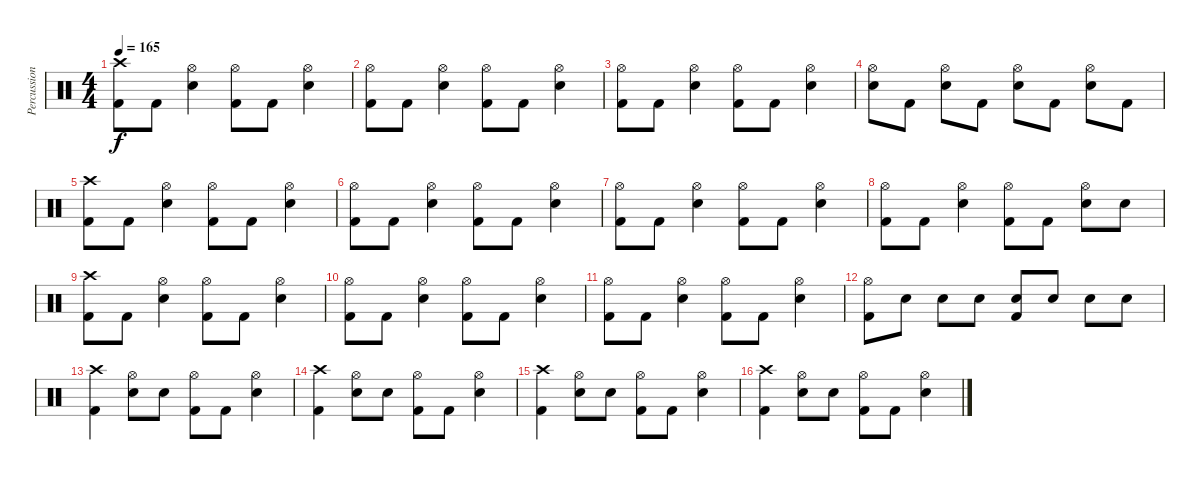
\track ("Percussion" "Percussion") {instrument percussion}
\staff {score}
\articulation defaults
\ts (4 4)
\tempo 165
\clef neutral
\ks c
("Crash high (hit)" "Kick (hit) 2").8{dy f} "Kick (hit) 2".8 ("Hi-Hat (open)" "Snare (hit) 2").4 ("Hi-Hat (open)" "Kick (hit) 2").8 "Kick (hit) 2".8 ("Hi-Hat (open)" "Snare (hit) 2").4 |
("Hi-Hat (open)" "Kick (hit) 2").8 "Kick (hit) 2".8 ("Hi-Hat (open)" "Snare (hit) 2").4 ("Hi-Hat (open)" "Kick (hit) 2").8 "Kick (hit) 2".8 ("Hi-Hat (open)" "Snare (hit) 2").4 |
("Hi-Hat (open)" "Kick (hit) 2").8 "Kick (hit) 2".8 ("Hi-Hat (open)" "Snare (hit) 2").4 ("Hi-Hat (open)" "Kick (hit) 2").8 "Kick (hit) 2".8 ("Hi-Hat (open)" "Snare (hit) 2").4 |
("Hi-Hat (open)" "Snare (hit) 2").8 "Kick (hit) 2".8 ("Hi-Hat (open)" "Snare (hit) 2").8 "Kick (hit) 2".8 ("Hi-Hat (open)" "Snare (hit) 2").8 "Kick (hit) 2".8 ("Hi-Hat (open)" "Snare (hit) 2").8 "Kick (hit) 2".8 |
("Crash high (hit)" "Kick (hit) 2").8 "Kick (hit) 2".8 ("Hi-Hat (open)" "Snare (hit) 2").4 ("Hi-Hat (open)" "Kick (hit) 2").8 "Kick (hit) 2".8 ("Hi-Hat (open)" "Snare (hit) 2").4 |
("Hi-Hat (open)" "Kick (hit) 2").8 "Kick (hit) 2".8 ("Hi-Hat (open)" "Snare (hit) 2").4 ("Hi-Hat (open)" "Kick (hit) 2").8 "Kick (hit) 2".8 ("Hi-Hat (open)" "Snare (hit) 2").4 |
("Hi-Hat (open)" "Kick (hit) 2").8 "Kick (hit) 2".8 ("Hi-Hat (open)" "Snare (hit) 2").4 ("Hi-Hat (open)" "Kick (hit) 2").8 "Kick (hit) 2".8 ("Hi-Hat (open)" "Snare (hit) 2").4 |
("Hi-Hat (open)" "Kick (hit) 2").8 "Kick (hit) 2".8 ("Hi-Hat (open)" "Snare (hit) 2").4 ("Hi-Hat (open)" "Kick (hit) 2").8 "Kick (hit) 2".8 ("Hi-Hat (open)" "Snare (hit) 2").8 "Snare (hit) 2".8 |
("Crash high (hit)" "Kick (hit) 2").8 "Kick (hit) 2".8 ("Hi-Hat (open)" "Snare (hit) 2").4 ("Hi-Hat (open)" "Kick (hit) 2").8 "Kick (hit) 2".8 ("Hi-Hat (open)" "Snare (hit) 2").4 |
("Hi-Hat (open)" "Kick (hit) 2").8 "Kick (hit) 2".8 ("Hi-Hat (open)" "Snare (hit) 2").4 ("Hi-Hat (open)" "Kick (hit) 2").8 "Kick (hit) 2".8 ("Hi-Hat (open)" "Snare (hit) 2").4 |
("Hi-Hat (open)" "Kick (hit) 2").8 "Kick (hit) 2".8 ("Hi-Hat (open)" "Snare (hit) 2").4 ("Hi-Hat (open)" "Kick (hit) 2").8 "Kick (hit) 2".8 ("Hi-Hat (open)" "Snare (hit) 2").4 |
("Hi-Hat (open)" "Kick (hit) 2").8 "Snare (hit) 2".8 "Snare (hit) 2".8 "Snare (hit) 2".8 ("Snare (hit) 2" "Kick (hit) 2").8 "Snare (hit) 2".8 "Snare (hit) 2".8 "Snare (hit) 2".8 |
("Crash high (hit)" "Kick (hit) 2").4 ("Hi-Hat (open)" "Snare (hit) 2").8 "Snare (hit) 2".8 ("Hi-Hat (open)" "Kick (hit) 2").8 "Kick (hit) 2".8 ("Hi-Hat (open)" "Snare (hit) 2").4 |
("Crash high (hit)" "Kick (hit) 2").4 ("Hi-Hat (open)" "Snare (hit) 2").8 "Snare (hit) 2".8 ("Hi-Hat (open)" "Kick (hit) 2").8 "Kick (hit) 2".8 ("Hi-Hat (open)" "Snare (hit) 2").4 |
("Crash high (hit)" "Kick (hit) 2").4 ("Hi-Hat (open)" "Snare (hit) 2").8 "Snare (hit) 2".8 ("Hi-Hat (open)" "Kick (hit) 2").8 "Kick (hit) 2".8 ("Hi-Hat (open)" "Snare (hit) 2").4 |
("Crash high (hit)" "Kick (hit) 2").4 ("Hi-Hat (open)" "Snare (hit) 2").8 "Snare (hit) 2".8 ("Hi-Hat (open)" "Kick (hit) 2").8 "Kick (hit) 2".8 ("Hi-Hat (open)" "Snare (hit) 2").4
